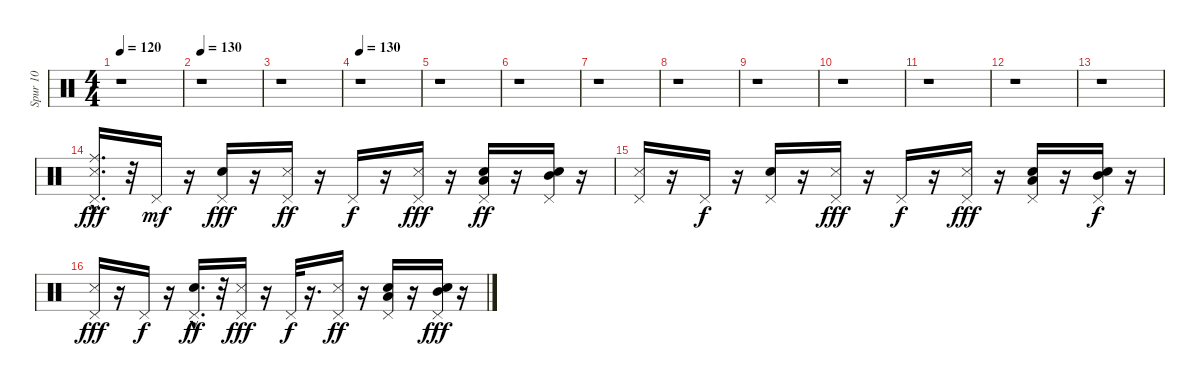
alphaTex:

\track ("Spur 10" "Spur 10") {instrument percussion}
\staff {score}
\articulation defaults
\ts (4 4)
\tempo 120
\clef neutral
\ks c
r.1{dy fff} |
\tempo 130
r.1 |
r.1 |
\tempo 130
r.1 |
r.1 |
r.1 |
r.1 |
r.1 |
r.1 |
r.1 |
r.1 |
r.1 |
r.1 |
("Ride (middle)" "Pedal Hi-Hat (hit)" "Metronome (hit)"{hac}).16{d} r.32 "Pedal Hi-Hat (hit)".16{dy mf} r.16 ("Pedal Hi-Hat (hit)" "Snare (hit) 2").16{dy fff} r.16 ("Metronome (hit)" "Pedal Hi-Hat (hit)").16{dy ff} r.16 "Pedal Hi-Hat (hit)".16{dy f} r.16 ("Metronome (hit)" "Pedal Hi-Hat (hit)").16{dy fff} r.16 ("Snare (hit) 2" "Low Tom (hit)" "Pedal Hi-Hat (hit)").16{dy ff} r.16 ("Snare (hit) 2" "Mid Tom (hit)" "Pedal Hi-Hat (hit)").16 r.16 |
("Metronome (hit)" "Pedal Hi-Hat (hit)").16 r.16 "Pedal Hi-Hat (hit)".16{dy f} r.16 ("Snare (hit) 2" "Pedal Hi-Hat (hit)").16 r.16 ("Metronome (hit)" "Pedal Hi-Hat (hit)").16{dy fff} r.16 "Pedal Hi-Hat (hit)".16{dy f} r.16 ("Metronome (hit)" "Pedal Hi-Hat (hit)").16{dy fff} r.16 ("Snare (hit) 2" "Low Tom (hit)" "Pedal Hi-Hat (hit)").16 r.16 ("Snare (hit) 2" "Mid Tom (hit)" "Pedal Hi-Hat (hit)").16{dy f} r.16 |
("Pedal Hi-Hat (hit)" "Metronome (hit)").16{dy fff} r.16 "Pedal Hi-Hat (hit)".16{dy f} r.16 ("Snare (hit) 2"{hac} "Pedal Hi-Hat (hit)").16{d dy ff} r.32 ("Metronome (hit)" "Pedal Hi-Hat (hit)").16{dy fff} r.16 "Pedal Hi-Hat (hit)".32{dy f} r.16{d} ("Metronome (hit)" "Pedal Hi-Hat (hit)").16{dy ff} r.16 ("Low Tom (hit)" "Snare (hit) 2" "Pedal Hi-Hat (hit)").16 r.16 ("Mid Tom (hit)" "Snare (hit) 2" "Pedal Hi-Hat (hit)").16{dy fff} r.16
